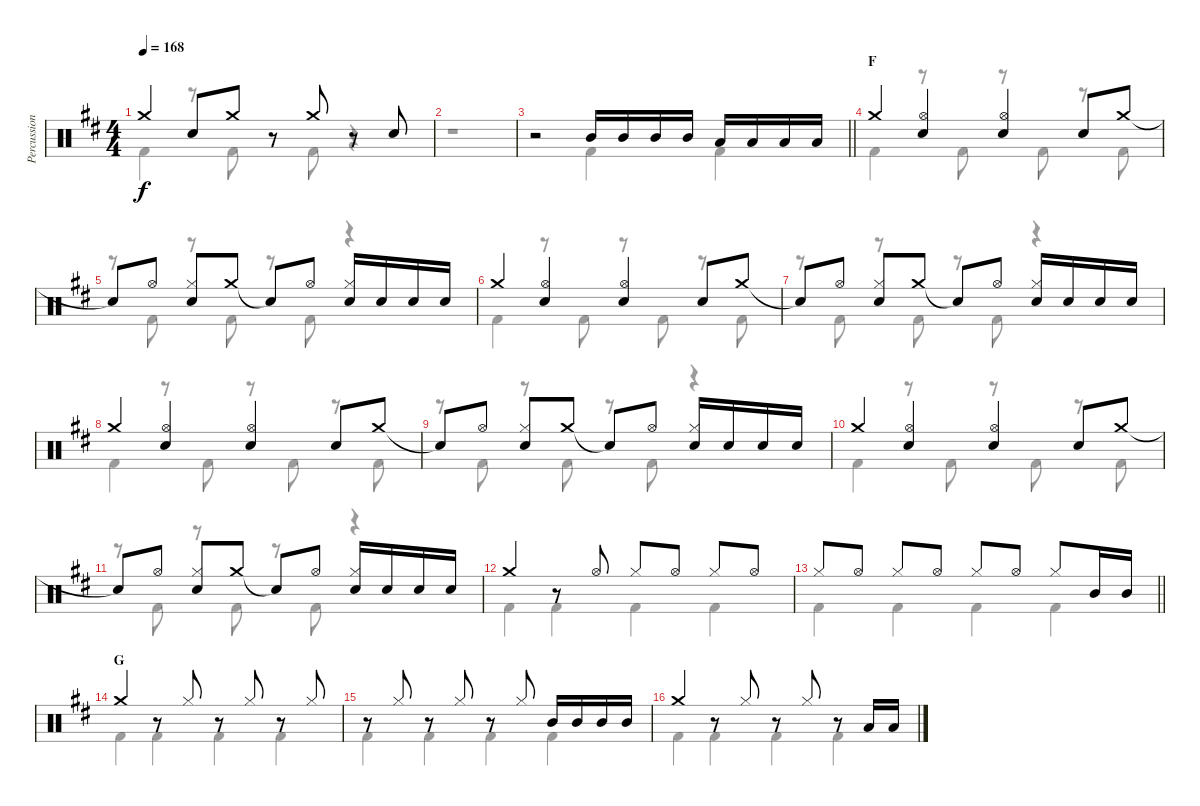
\track ("Percussion" "Percussion") {instrument percussion}
\staff {score}
\articulation defaults
\voice
\ts (4 4)
\tempo 168
\clef neutral
\ks d "Crash medium (hit)".4{dy f} "Snare (hit) 2".8 "Crash medium (hit)".8
r.8 "Crash medium (hit)".8 r.8 "Snare (hit) 2".8 |
|
\barLineRight lightlight
r.2 "Mid Tom (hit)".16 "Mid Tom (hit)".16 "Mid Tom (hit)".16 "Mid Tom (hit)".16 "Low Tom (hit)".16 "Low Tom (hit)".16 "Low Tom (hit)".16 "Low Tom (hit)".16 |
\section ("" "F")
"Crash medium (hit)".4 ("Hi-Hat (open)" "Snare (hit) 2").4 ("Hi-Hat (open)" "Snare (hit) 2").4 "Snare (hit) 2".8 "Crash medium (hit)".8 |
"Snare (hit)"{t}.8 "Hi-Hat (open)".8 ("Hi-Hat (closed)" "Snare (hit) 2").8 "Crash medium (hit)".8 "Snare (hit)"{t}.8 "Hi-Hat (open)".8 ("Hi-Hat (closed)" "Snare (hit) 2").16 "Snare (hit) 2".16 "Snare (hit) 2".16 "Snare (hit) 2".16 |
"Crash medium (hit)".4 ("Hi-Hat (open)" "Snare (hit) 2").4 ("Hi-Hat (open)" "Snare (hit) 2").4 "Snare (hit) 2".8 "Crash medium (hit)".8 |
"Snare (hit)"{t}.8 "Hi-Hat (open)".8 ("Hi-Hat (closed)" "Snare (hit) 2").8 "Crash medium (hit)".8 "Snare (hit)"{t}.8 "Hi-Hat (open)".8 ("Hi-Hat (closed)" "Snare (hit) 2").16 "Snare (hit) 2".16 "Snare (hit) 2".16 "Snare (hit) 2".16 |
"Crash medium (hit)".4 ("Hi-Hat (open)" "Snare (hit) 2").4 ("Hi-Hat (open)" "Snare (hit) 2").4 "Snare (hit) 2".8 "Crash medium (hit)".8 |
"Snare (hit)"{t}.8 "Hi-Hat (open)".8 ("Hi-Hat (closed)" "Snare (hit) 2").8 "Crash medium (hit)".8 "Snare (hit)"{t}.8 "Hi-Hat (open)".8 ("Hi-Hat (closed)" "Snare (hit) 2").16 "Snare (hit) 2".16 "Snare (hit) 2".16 "Snare (hit) 2".16 |
"Crash medium (hit)".4 ("Hi-Hat (open)" "Snare (hit) 2").4 ("Hi-Hat (open)" "Snare (hit) 2").4 "Snare (hit) 2".8 "Crash medium (hit)".8 |
"Snare (hit)"{t}.8 "Hi-Hat (open)".8 ("Hi-Hat (closed)" "Snare (hit) 2").8 "Crash medium (hit)".8 "Snare (hit)"{t}.8 "Hi-Hat (open)".8 ("Hi-Hat (closed)" "Snare (hit) 2").16 "Snare (hit) 2".16 "Snare (hit) 2".16 "Snare (hit) 2".16 |
"Crash medium (hit)".4 r.8 "Hi-Hat (open)".8 "Hi-Hat (closed)".8 "Hi-Hat (open)".8 "Hi-Hat (closed)".8 "Hi-Hat (open)".8 |
\barLineRight lightlight "Hi-Hat (closed)".8 "Hi-Hat (open)".8 "Hi-Hat (closed)".8 "Hi-Hat (open)".8 "Hi-Hat (closed)".8 "Hi-Hat (open)".8 "Hi-Hat (closed)".8 "Mid Tom (hit)".16 "Mid Tom (hit)".16
|
\section ("" "G")
"Crash medium (hit)".4 r.8 "Hi-Hat (closed)".8 r.8 "Hi-Hat (closed)".8 r.8 "Hi-Hat (closed)".8 |
r.8 "Hi-Hat (closed)".8 r.8 "Hi-Hat (closed)".8 r.8 "Hi-Hat (closed)".8 "Mid Tom (hit)".16 "Mid Tom (hit)".16 "Mid Tom (hit)".16 "Mid Tom (hit)".16 |
"Crash medium (hit)".4 r.8 "Hi-Hat (closed)".8 r.8 "Hi-Hat (closed)".8 r.8 "Low Tom (hit)".16 "Low Tom (hit)".16
\voice
\clef neutral
\ottava regular
\simile none
\ks d "Kick (hit) 2".4{dy f}
r.8 "Kick (hit) 2".8 r.8 "Kick (hit) 2".8 r.4 |
r.1 |
\barLineRight lightlight
r.2 "Kick (hit) 2".4 "Kick (hit) 2".4 |
"Kick (hit) 2".4 r.8 "Kick (hit) 2".8 r.8 "Kick (hit) 2".8 r.8 "Kick (hit) 2".8 |
r.8 "Kick (hit) 2".8 r.8 "Kick (hit) 2".8 r.8 "Kick (hit) 2".8 r.4 |
"Kick (hit) 2".4 r.8 "Kick (hit) 2".8 r.8 "Kick (hit) 2".8 r.8 "Kick (hit) 2".8 |
r.8 "Kick (hit) 2".8 r.8 "Kick (hit) 2".8 r.8 "Kick (hit) 2".8 r.4 |
"Kick (hit) 2".4 r.8 "Kick (hit) 2".8 r.8 "Kick (hit) 2".8 r.8 "Kick (hit) 2".8 |
r.8 "Kick (hit) 2".8 r.8 "Kick (hit) 2".8 r.8 "Kick (hit) 2".8 r.4 |
"Kick (hit) 2".4 r.8 "Kick (hit) 2".8 r.8 "Kick (hit) 2".8 r.8 "Kick (hit) 2".8 |
r.8 "Kick (hit) 2".8 r.8 "Kick (hit) 2".8 r.8 "Kick (hit) 2".8 r.4 |
"Kick (hit) 2".4 "Kick (hit) 2".4 "Kick (hit) 2".4 "Kick (hit) 2".4 |
\barLineRight lightlight "Kick (hit) 2".4 "Kick (hit) 2".4 "Kick (hit) 2".4 "Kick (hit) 2".4
|
"Kick (hit) 2".4 "Kick (hit) 2".4 "Kick (hit) 2".4 "Kick (hit) 2".4 |
"Kick (hit) 2".4 "Kick (hit) 2".4 "Kick (hit) 2".4 "Kick (hit) 2".4 |
"Kick (hit) 2".4 "Kick (hit) 2".4 "Kick (hit) 2".4 "Kick (hit) 2".4
